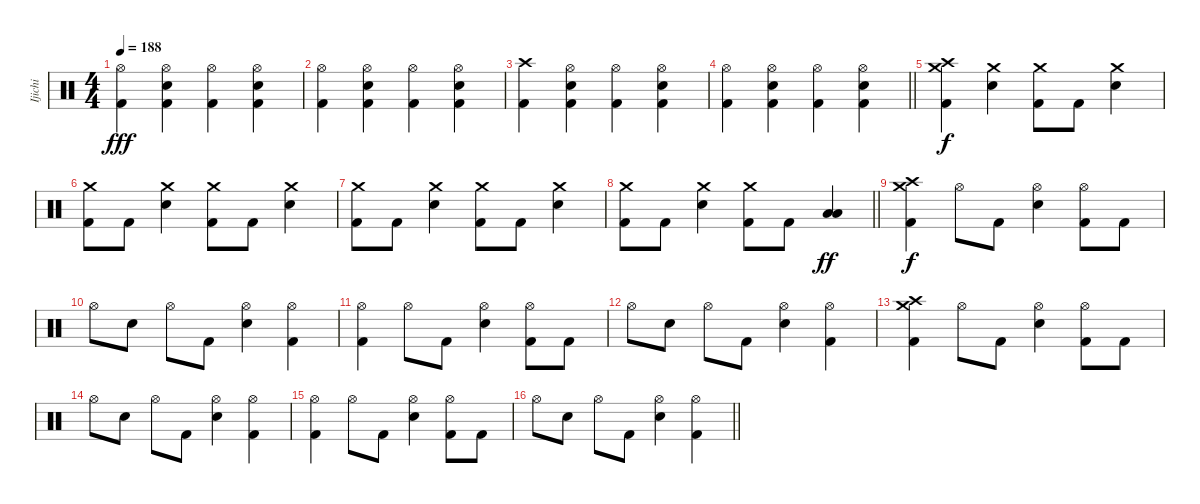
\track ("Ijichi" "Ijichi") {instrument percussion}
\staff {score}
\articulation defaults
\ts (4 4)
\tempo 188
\clef neutral
\ks c
("Hi-Hat (open)" "Kick (hit) 2").4{dy fff} ("Hi-Hat (open)" "Electric Snare (hit)" "Kick (hit) 2").4 ("Hi-Hat (open)" "Kick (hit) 2").4 ("Hi-Hat (open)" "Electric Snare (hit)" "Kick (hit) 2").4 |
("Hi-Hat (open)" "Kick (hit) 2").4 ("Hi-Hat (open)" "Electric Snare (hit)" "Kick (hit) 2").4 ("Hi-Hat (open)" "Kick (hit) 2").4 ("Hi-Hat (open)" "Electric Snare (hit)" "Kick (hit) 2").4 |
("Crash high (hit)" "Kick (hit) 2").4 ("Hi-Hat (open)" "Electric Snare (hit)" "Kick (hit) 2").4 ("Hi-Hat (open)" "Kick (hit) 2").4 ("Hi-Hat (open)" "Electric Snare (hit)" "Kick (hit) 2").4 |
\barLineRight lightlight
("Hi-Hat (open)" "Kick (hit) 2").4 ("Hi-Hat (open)" "Electric Snare (hit)" "Kick (hit) 2").4 ("Hi-Hat (open)" "Kick (hit) 2").4 ("Hi-Hat (open)" "Electric Snare (hit)" "Kick (hit) 2").4 |
("Crash high (hit)" "Crash medium (hit)" "Kick (hit) 2").4{dy f} ("Crash medium (hit)" "Electric Snare (hit)").4 ("Crash medium (hit)" "Kick (hit) 2").8 "Kick (hit) 2".8 ("Crash medium (hit)" "Electric Snare (hit)").4 |
("Crash medium (hit)" "Kick (hit) 2").8 "Kick (hit) 2".8 ("Crash medium (hit)" "Electric Snare (hit)").4 ("Crash medium (hit)" "Kick (hit) 2").8 "Kick (hit) 2".8 ("Crash medium (hit)" "Electric Snare (hit)").4 |
("Crash medium (hit)" "Kick (hit) 2").8 "Kick (hit) 2".8 ("Crash medium (hit)" "Electric Snare (hit)").4 ("Crash medium (hit)" "Kick (hit) 2").8 "Kick (hit) 2".8 ("Crash medium (hit)" "Electric Snare (hit)").4 |
\barLineRight lightlight
("Crash medium (hit)" "Kick (hit) 2").8 "Kick (hit) 2".8 ("Crash medium (hit)" "Electric Snare (hit)").4 ("Crash medium (hit)" "Kick (hit) 2").8 "Kick (hit) 2".8 ("Low Tom (hit)" "Low Floor Tom (hit)").4{dy ff} |
("Crash high (hit)" "Crash medium (hit)" "Kick (hit) 2").4{dy f} "Hi-Hat (open)".8 "Kick (hit) 2".8 ("Hi-Hat (open)" "Electric Snare (hit)").4 ("Hi-Hat (open)" "Kick (hit) 2").8 "Kick (hit) 2".8 |
"Hi-Hat (open)".8 "Electric Snare (hit)".8 "Hi-Hat (open)".8 "Kick (hit) 2".8 ("Hi-Hat (open)" "Electric Snare (hit)").4 ("Hi-Hat (open)" "Kick (hit) 2").4 |
("Hi-Hat (open)" "Kick (hit) 2").4 "Hi-Hat (open)".8 "Kick (hit) 2".8 ("Hi-Hat (open)" "Electric Snare (hit)").4 ("Hi-Hat (open)" "Kick (hit) 2").8 "Kick (hit) 2".8 |
"Hi-Hat (open)".8 "Electric Snare (hit)".8 "Hi-Hat (open)".8 "Kick (hit) 2".8 ("Hi-Hat (open)" "Electric Snare (hit)").4 ("Hi-Hat (open)" "Kick (hit) 2").4 |
("Crash high (hit)" "Crash medium (hit)" "Kick (hit) 2").4 "Hi-Hat (open)".8 "Kick (hit) 2".8 ("Hi-Hat (open)" "Electric Snare (hit)").4 ("Hi-Hat (open)" "Kick (hit) 2").8 "Kick (hit) 2".8 |
"Hi-Hat (open)".8 "Electric Snare (hit)".8 "Hi-Hat (open)".8 "Kick (hit) 2".8 ("Hi-Hat (open)" "Electric Snare (hit)").4 ("Hi-Hat (open)" "Kick (hit) 2").4 |
("Hi-Hat (open)" "Kick (hit) 2").4 "Hi-Hat (open)".8 "Kick (hit) 2".8 ("Hi-Hat (open)" "Electric Snare (hit)").4 ("Hi-Hat (open)" "Kick (hit) 2").8 "Kick (hit) 2".8 |
\barLineRight lightlight "Hi-Hat (open)".8 "Electric Snare (hit)".8 "Hi-Hat (open)".8 "Kick (hit) 2".8
("Hi-Hat (open)" "Electric Snare (hit)").4 ("Hi-Hat (open)" "Kick (hit) 2").4
